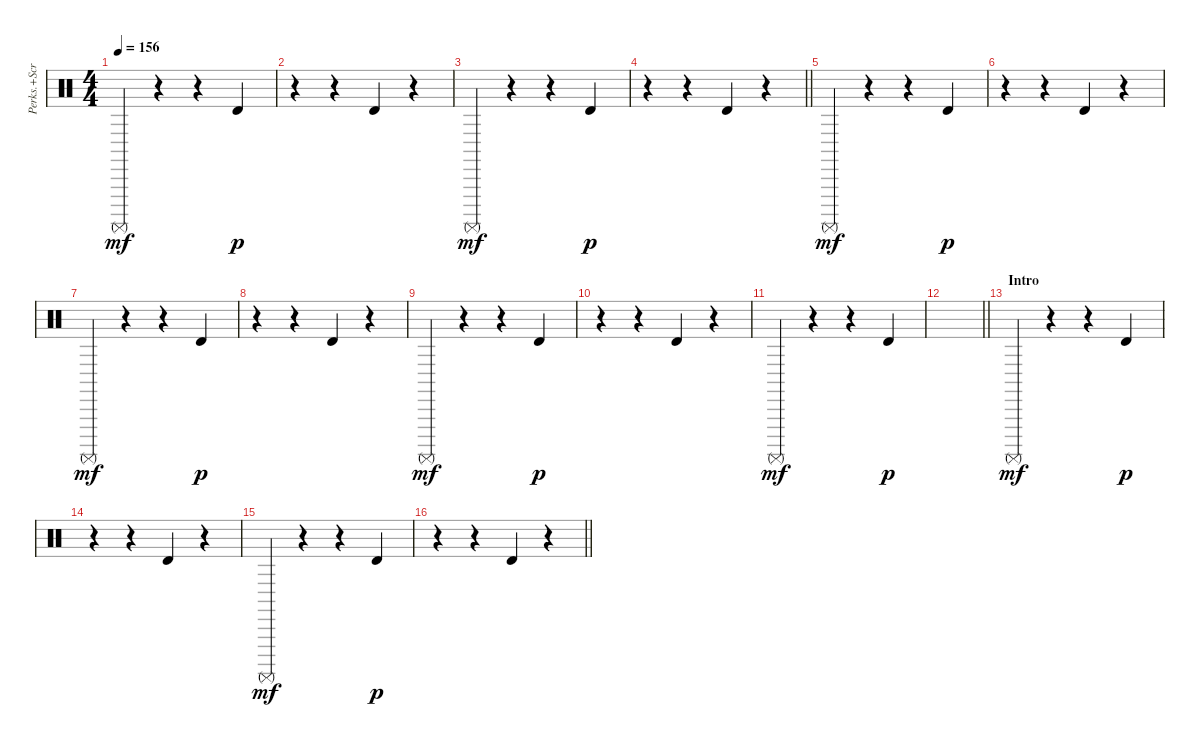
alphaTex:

\track ("Perks.+Scratch" "Perks.+Scr") {instrument percussion}
\staff {score}
\articulation defaults
\ts (4 4)
\tempo 156
\clef neutral
\ks c "Surdo (mute)".4{dy mf}
r.4 r.4 "Timbale high (hit)".4{dy p} |
r.4 r.4 "Timbale high (hit)".4 r.4 |
"Surdo (mute)".4{dy mf} r.4 r.4 "Timbale high (hit)".4{dy p} |
\barLineRight lightlight
r.4 r.4 "Timbale high (hit)".4 r.4 |
"Surdo (mute)".4{dy mf} r.4 r.4 "Timbale high (hit)".4{dy p} |
r.4 r.4 "Timbale high (hit)".4 r.4 |
"Surdo (mute)".4{dy mf} r.4 r.4 "Timbale high (hit)".4{dy p} |
r.4 r.4 "Timbale high (hit)".4 r.4 |
"Surdo (mute)".4{dy mf} r.4 r.4 "Timbale high (hit)".4{dy p} |
r.4 r.4 "Timbale high (hit)".4 r.4 |
"Surdo (mute)".4{dy mf} r.4 r.4 "Timbale high (hit)".4{dy p} |
\barLineRight lightlight
|
\section ("" "Intro")
"Surdo (mute)".4{dy mf} r.4 r.4 "Timbale high (hit)".4{dy p} |
r.4 r.4 "Timbale high (hit)".4 r.4 |
"Surdo (mute)".4{dy mf} r.4 r.4 "Timbale high (hit)".4{dy p} |
\barLineRight lightlight
r.4 r.4 "Timbale high (hit)".4 r.4
